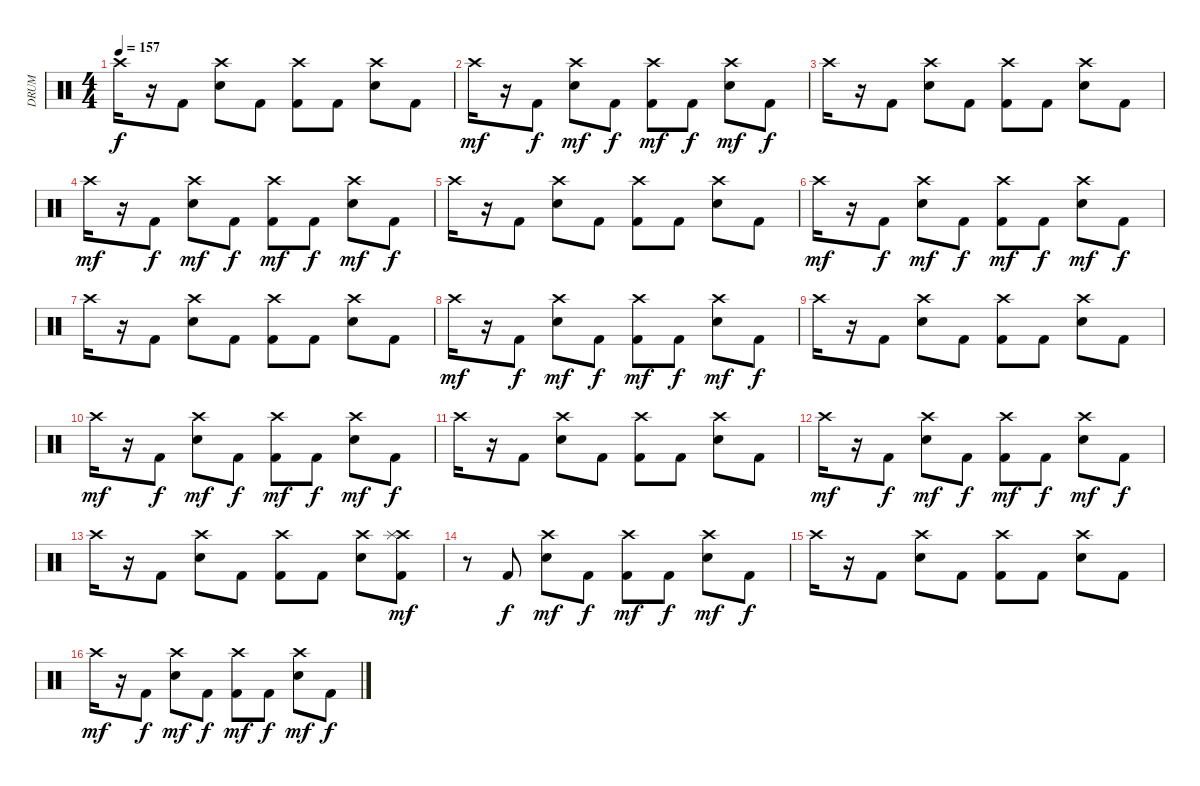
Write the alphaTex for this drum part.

\track ("DRUM" "DRUM") {instrument percussion}
\staff {score}
\articulation defaults
\ts (4 4)
\tempo 157
\clef neutral
\ks c "Crash high (hit)".16{dy f}
r.16 "Kick (hit) 2".8 ("Crash high (hit)" "Electric Snare (hit)").8 "Kick (hit) 2".8 ("Crash high (hit)" "Kick (hit) 2").8 "Kick (hit) 2".8 ("Electric Snare (hit)" "Crash high (hit)").8 "Kick (hit) 2".8 |
"Crash high (hit)".16{dy mf} r.16 "Kick (hit) 2".8{dy f} ("Crash high (hit)" "Electric Snare (hit)").8{dy mf} "Kick (hit) 2".8{dy f} ("Kick (hit) 2" "Crash high (hit)").8{dy mf} "Kick (hit) 2".8{dy f} ("Crash high (hit)" "Electric Snare (hit)").8{dy mf} "Kick (hit) 2".8{dy f} |
"Crash high (hit)".16 r.16 "Kick (hit) 2".8 ("Crash high (hit)" "Electric Snare (hit)").8 "Kick (hit) 2".8 ("Crash high (hit)" "Kick (hit) 2").8 "Kick (hit) 2".8 ("Electric Snare (hit)" "Crash high (hit)").8 "Kick (hit) 2".8 |
"Crash high (hit)".16{dy mf} r.16 "Kick (hit) 2".8{dy f} ("Crash high (hit)" "Electric Snare (hit)").8{dy mf} "Kick (hit) 2".8{dy f} ("Kick (hit) 2" "Crash high (hit)").8{dy mf} "Kick (hit) 2".8{dy f} ("Crash high (hit)" "Electric Snare (hit)").8{dy mf} "Kick (hit) 2".8{dy f} |
"Crash high (hit)".16 r.16 "Kick (hit) 2".8 ("Crash high (hit)" "Electric Snare (hit)").8 "Kick (hit) 2".8 ("Crash high (hit)" "Kick (hit) 2").8 "Kick (hit) 2".8 ("Electric Snare (hit)" "Crash high (hit)").8 "Kick (hit) 2".8 |
"Crash high (hit)".16{dy mf} r.16 "Kick (hit) 2".8{dy f} ("Crash high (hit)" "Electric Snare (hit)").8{dy mf} "Kick (hit) 2".8{dy f} ("Kick (hit) 2" "Crash high (hit)").8{dy mf} "Kick (hit) 2".8{dy f} ("Crash high (hit)" "Electric Snare (hit)").8{dy mf} "Kick (hit) 2".8{dy f} |
"Crash high (hit)".16 r.16 "Kick (hit) 2".8 ("Crash high (hit)" "Electric Snare (hit)").8 "Kick (hit) 2".8 ("Crash high (hit)" "Kick (hit) 2").8 "Kick (hit) 2".8 ("Electric Snare (hit)" "Crash high (hit)").8 "Kick (hit) 2".8 |
"Crash high (hit)".16{dy mf} r.16 "Kick (hit) 2".8{dy f} ("Crash high (hit)" "Electric Snare (hit)").8{dy mf} "Kick (hit) 2".8{dy f} ("Kick (hit) 2" "Crash high (hit)").8{dy mf} "Kick (hit) 2".8{dy f} ("Crash high (hit)" "Electric Snare (hit)").8{dy mf} "Kick (hit) 2".8{dy f} |
"Crash high (hit)".16 r.16 "Kick (hit) 2".8 ("Crash high (hit)" "Electric Snare (hit)").8 "Kick (hit) 2".8 ("Crash high (hit)" "Kick (hit) 2").8 "Kick (hit) 2".8 ("Electric Snare (hit)" "Crash high (hit)").8 "Kick (hit) 2".8 |
"Crash high (hit)".16{dy mf} r.16 "Kick (hit) 2".8{dy f} ("Crash high (hit)" "Electric Snare (hit)").8{dy mf} "Kick (hit) 2".8{dy f} ("Kick (hit) 2" "Crash high (hit)").8{dy mf} "Kick (hit) 2".8{dy f} ("Crash high (hit)" "Electric Snare (hit)").8{dy mf} "Kick (hit) 2".8{dy f} |
"Crash high (hit)".16 r.16 "Kick (hit) 2".8 ("Crash high (hit)" "Electric Snare (hit)").8 "Kick (hit) 2".8 ("Crash high (hit)" "Kick (hit) 2").8 "Kick (hit) 2".8 ("Electric Snare (hit)" "Crash high (hit)").8 "Kick (hit) 2".8 |
"Crash high (hit)".16{dy mf} r.16 "Kick (hit) 2".8{dy f} ("Crash high (hit)" "Electric Snare (hit)").8{dy mf} "Kick (hit) 2".8{dy f} ("Kick (hit) 2" "Crash high (hit)").8{dy mf} "Kick (hit) 2".8{dy f} ("Crash high (hit)" "Electric Snare (hit)").8{dy mf} "Kick (hit) 2".8{dy f} |
"Crash high (hit)".16 r.16 "Kick (hit) 2".8 ("Crash high (hit)" "Electric Snare (hit)").8 "Kick (hit) 2".8 ("Crash high (hit)" "Kick (hit) 2").8 "Kick (hit) 2".8 ("Electric Snare (hit)" "Crash high (hit)").8 ("Crash high (hit)" "Splash (hit)" "Kick (hit) 2").8{dy mf} |
r.8 "Kick (hit) 2".8{dy f} ("Electric Snare (hit)" "Crash high (hit)").8{dy mf} "Kick (hit) 2".8{dy f} ("Kick (hit) 2" "Crash high (hit)").8{dy mf} "Kick (hit) 2".8{dy f} ("Crash high (hit)" "Electric Snare (hit)").8{dy mf} "Kick (hit) 2".8{dy f} |
"Crash high (hit)".16 r.16 "Kick (hit) 2".8 ("Crash high (hit)" "Electric Snare (hit)").8 "Kick (hit) 2".8 ("Crash high (hit)" "Kick (hit) 2").8 "Kick (hit) 2".8 ("Electric Snare (hit)" "Crash high (hit)").8 "Kick (hit) 2".8 |
"Crash high (hit)".16{dy mf} r.16 "Kick (hit) 2".8{dy f} ("Crash high (hit)" "Electric Snare (hit)").8{dy mf} "Kick (hit) 2".8{dy f} ("Kick (hit) 2" "Crash high (hit)").8{dy mf} "Kick (hit) 2".8{dy f} ("Crash high (hit)" "Electric Snare (hit)").8{dy mf} "Kick (hit) 2".8{dy f}
